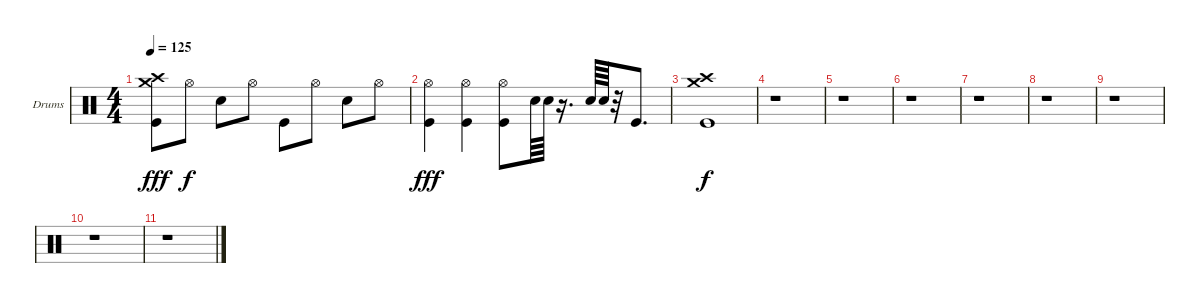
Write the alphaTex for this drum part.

\bracketExtendMode groupsimilarinstruments
\firstSystemTrackNameOrientation horizontal
\otherSystemsTrackNameOrientation horizontal
\track ("Drumkit" "Drums") {instrument percussion}
\staff {score}
\articulation defaults
\ts (4 4)
\tempo 125
\clef neutral
\ks c
("Crash high (hit)" "Crash medium (hit)" "Kick (hit)").8{dy fff} "Hi-Hat (open)".8{dy f} "Snare (hit) 2".8 "Hi-Hat (open)".8 "Kick (hit)".8 "Hi-Hat (open)".8 "Snare (hit) 2".8 "Hi-Hat (open)".8 |
("Hi-Hat (open)" "Kick (hit)").4{dy fff} ("Hi-Hat (open)" "Kick (hit)").4 ("Hi-Hat (open)" "Kick (hit)").8 "Snare (hit) 2".64 "Snare (hit) 2".64 r.16{d} "Snare (hit) 2".64 "Snare (hit) 2".64 r.32 "Kick (hit)".8{d} |
("Crash high (hit)" "Crash medium (hit)" "Kick (hit)").1{dy f} |
r.1 |
r.1 |
r.1 |
r.1 |
r.1 |
r.1 |
r.1 |
r.1
